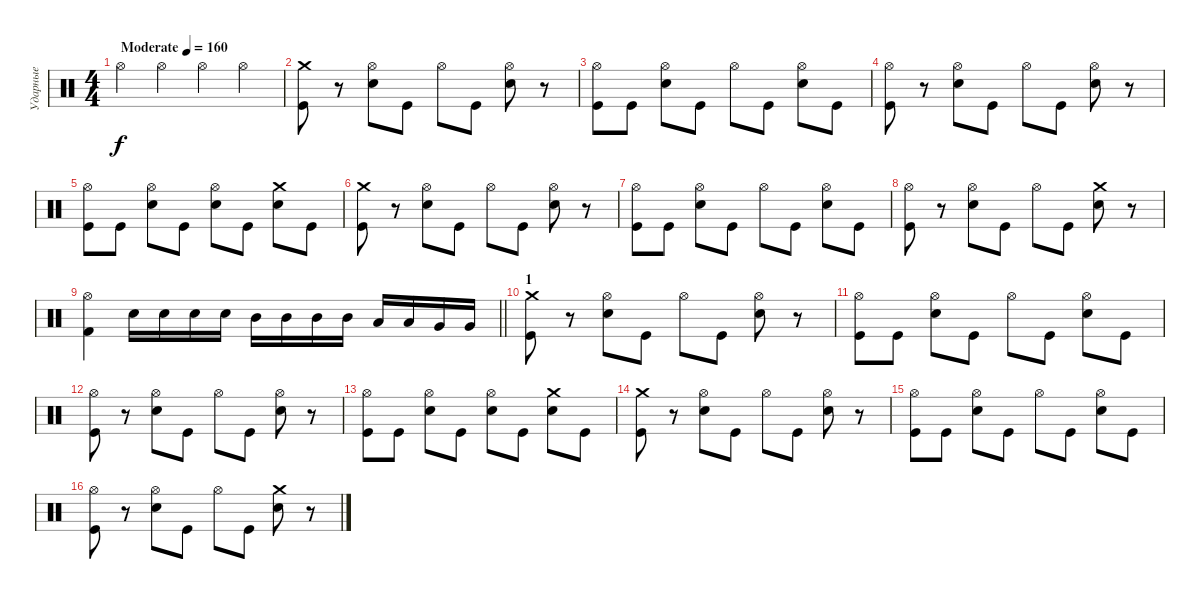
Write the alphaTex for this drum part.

\track ("Ударные" "Ударные") {instrument percussion}
\staff {score}
\articulation defaults
\ts (4 4)
\tempo (160 "Moderate")
\clef neutral
\ks c "Hi-Hat (open)".4{dy f} "Hi-Hat (open)".4 "Hi-Hat (open)".4 "Hi-Hat (open)".4
|
("Kick (hit)" "Crash medium (hit)").8 r.8 ("Electric Snare (hit)" "Hi-Hat (open)").8 "Kick (hit)".8 "Hi-Hat (open)".8 "Kick (hit)".8 ("Electric Snare (hit)" "Hi-Hat (open)").8 r.8 |
("Kick (hit)" "Hi-Hat (open)").8 "Kick (hit)".8 ("Electric Snare (hit)" "Hi-Hat (open)").8 "Kick (hit)".8 "Hi-Hat (open)".8 "Kick (hit)".8 ("Electric Snare (hit)" "Hi-Hat (open)").8 "Kick (hit)".8 |
("Kick (hit)" "Hi-Hat (open)").8 r.8 ("Electric Snare (hit)" "Hi-Hat (open)").8 "Kick (hit)".8 "Hi-Hat (open)".8 "Kick (hit)".8 ("Electric Snare (hit)" "Hi-Hat (open)").8 r.8 |
("Kick (hit)" "Hi-Hat (open)").8 "Kick (hit)".8 ("Electric Snare (hit)" "Hi-Hat (open)").8 "Kick (hit)".8 ("Electric Snare (hit)" "Hi-Hat (open)").8 "Kick (hit)".8 ("Electric Snare (hit)" "Crash medium (hit)").8 "Kick (hit)".8 |
("Kick (hit)" "Crash medium (hit)").8 r.8 ("Electric Snare (hit)" "Hi-Hat (open)").8 "Kick (hit)".8 "Hi-Hat (open)".8 "Kick (hit)".8 ("Electric Snare (hit)" "Hi-Hat (open)").8 r.8 |
("Kick (hit)" "Hi-Hat (open)").8 "Kick (hit)".8 ("Electric Snare (hit)" "Hi-Hat (open)").8 "Kick (hit)".8 "Hi-Hat (open)".8 "Kick (hit)".8 ("Electric Snare (hit)" "Hi-Hat (open)").8 "Kick (hit)".8 |
("Kick (hit)" "Hi-Hat (open)").8 r.8 ("Electric Snare (hit)" "Hi-Hat (open)").8 "Kick (hit)".8 "Hi-Hat (open)".8 "Kick (hit)".8 ("Electric Snare (hit)" "Crash medium (hit)").8 r.8 |
\barLineRight lightlight
("Kick (hit) 2" "Hi-Hat (open)").4 "Electric Snare (hit)".16 "Electric Snare (hit)".16 "Electric Snare (hit)".16 "Electric Snare (hit)".16 "Mid Tom (hit)".16 "Mid Tom (hit)".16 "Mid Tom (hit)".16 "Mid Tom (hit)".16 "Low Tom (hit)".16 "Low Tom (hit)".16 "Very Low Tom (hit)".16 "Very Low Tom (hit)".16 |
\section ("" "1")
("Kick (hit)" "Crash medium (hit)").8 r.8 ("Electric Snare (hit)" "Hi-Hat (open)").8 "Kick (hit)".8 "Hi-Hat (open)".8 "Kick (hit)".8 ("Electric Snare (hit)" "Hi-Hat (open)").8 r.8 |
("Kick (hit)" "Hi-Hat (open)").8 "Kick (hit)".8 ("Electric Snare (hit)" "Hi-Hat (open)").8 "Kick (hit)".8 "Hi-Hat (open)".8 "Kick (hit)".8 ("Electric Snare (hit)" "Hi-Hat (open)").8 "Kick (hit)".8 |
("Kick (hit)" "Hi-Hat (open)").8 r.8 ("Electric Snare (hit)" "Hi-Hat (open)").8 "Kick (hit)".8 "Hi-Hat (open)".8 "Kick (hit)".8 ("Electric Snare (hit)" "Hi-Hat (open)").8 r.8 |
("Kick (hit)" "Hi-Hat (open)").8 "Kick (hit)".8 ("Electric Snare (hit)" "Hi-Hat (open)").8 "Kick (hit)".8 ("Electric Snare (hit)" "Hi-Hat (open)").8 "Kick (hit)".8 ("Electric Snare (hit)" "Crash medium (hit)").8 "Kick (hit)".8 |
("Kick (hit)" "Crash medium (hit)").8 r.8 ("Electric Snare (hit)" "Hi-Hat (open)").8 "Kick (hit)".8 "Hi-Hat (open)".8 "Kick (hit)".8 ("Electric Snare (hit)" "Hi-Hat (open)").8 r.8 |
("Kick (hit)" "Hi-Hat (open)").8 "Kick (hit)".8 ("Electric Snare (hit)" "Hi-Hat (open)").8 "Kick (hit)".8 "Hi-Hat (open)".8 "Kick (hit)".8 ("Electric Snare (hit)" "Hi-Hat (open)").8 "Kick (hit)".8 |
("Kick (hit)" "Hi-Hat (open)").8 r.8 ("Electric Snare (hit)" "Hi-Hat (open)").8 "Kick (hit)".8 "Hi-Hat (open)".8 "Kick (hit)".8 ("Electric Snare (hit)" "Crash medium (hit)").8 r.8
